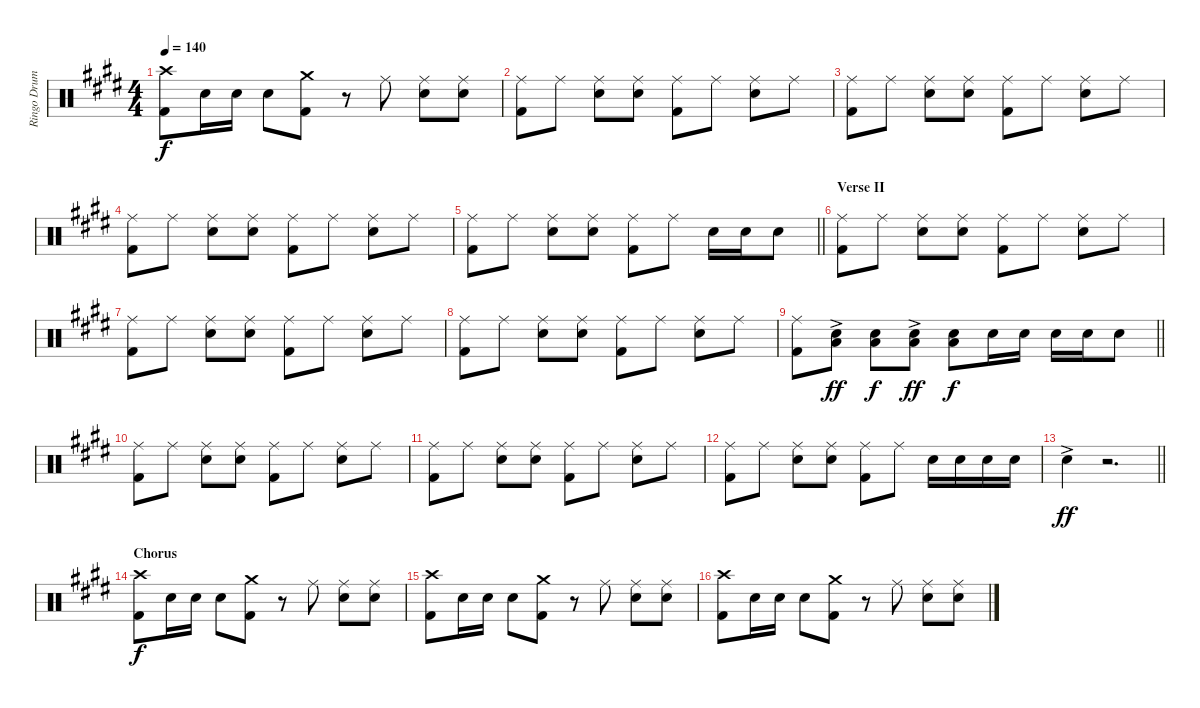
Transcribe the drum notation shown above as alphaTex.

\track ("Ringo Drums" "Ringo Drum") {instrument percussion}
\staff {score}
\articulation defaults
\ts (4 4)
\tempo 140
\clef neutral
\ks e
("Crash high (hit)" "Kick (hit) 2").8{dy f} "Snare (hit) 2".16 "Electric Snare (hit)".16 "Snare (hit) 2".8 ("Crash medium (hit)" "Kick (hit) 2").8 r.8 "Ride (middle)".8 ("Ride (middle)" "Snare (hit) 2").8 ("Ride (middle)" "Snare (hit) 2").8 |
("Ride (middle)" "Kick (hit) 2").8 "Ride (middle)".8 ("Ride (middle)" "Snare (hit) 2").8 ("Ride (middle)" "Snare (hit) 2").8 ("Ride (middle)" "Kick (hit) 2").8 "Ride (middle)".8 ("Ride (middle)" "Snare (hit) 2").8 "Ride (middle)".8 |
("Ride (middle)" "Kick (hit) 2").8 "Ride (middle)".8 ("Ride (middle)" "Snare (hit) 2").8 ("Ride (middle)" "Snare (hit) 2").8 ("Ride (middle)" "Kick (hit) 2").8 "Ride (middle)".8 ("Ride (middle)" "Snare (hit) 2").8 "Ride (middle)".8 |
("Ride (middle)" "Kick (hit) 2").8 "Ride (middle)".8 ("Ride (middle)" "Snare (hit) 2").8 ("Ride (middle)" "Snare (hit) 2").8 ("Ride (middle)" "Kick (hit) 2").8 "Ride (middle)".8 ("Ride (middle)" "Snare (hit) 2").8 "Ride (middle)".8 |
\barLineRight lightlight
("Ride (middle)" "Kick (hit) 2").8 "Ride (middle)".8 ("Ride (middle)" "Snare (hit) 2").8 ("Ride (middle)" "Snare (hit) 2").8 ("Ride (middle)" "Kick (hit) 2").8 "Ride (middle)".8 "Snare (hit) 2".16 "Electric Snare (hit)".16 "Snare (hit) 2".8 |
\section ("" "Verse II")
("Ride (middle)" "Kick (hit) 2").8 "Ride (middle)".8 ("Ride (middle)" "Snare (hit) 2").8 ("Ride (middle)" "Snare (hit) 2").8 ("Ride (middle)" "Kick (hit) 2").8 "Ride (middle)".8 ("Ride (middle)" "Snare (hit) 2").8 "Ride (middle)".8 |
("Ride (middle)" "Kick (hit) 2").8 "Ride (middle)".8 ("Ride (middle)" "Snare (hit) 2").8 ("Ride (middle)" "Snare (hit) 2").8 ("Ride (middle)" "Kick (hit) 2").8 "Ride (middle)".8 ("Ride (middle)" "Snare (hit) 2").8 "Ride (middle)".8 |
("Ride (middle)" "Kick (hit) 2").8 "Ride (middle)".8 ("Ride (middle)" "Snare (hit) 2").8 ("Ride (middle)" "Snare (hit) 2").8 ("Ride (middle)" "Kick (hit) 2").8 "Ride (middle)".8 ("Ride (middle)" "Snare (hit) 2").8 "Ride (middle)".8 |
\barLineRight lightlight
("Ride (middle)" "Kick (hit) 2").8 ("Low Tom (hit)"{ac} "Snare (hit) 2"{ac}).8{dy ff} ("Low Tom (hit)" "Snare (hit) 2").8{dy f} ("Low Tom (hit)"{ac} "Snare (hit) 2"{ac}).8{dy ff} ("Low Tom (hit)" "Snare (hit) 2").8{dy f} "Snare (hit) 2".16 "Electric Snare (hit)".16 "Snare (hit) 2".16 "Electric Snare (hit)".16 "Snare (hit) 2".8 |
("Ride (middle)" "Kick (hit) 2").8 "Ride (middle)".8 ("Ride (middle)" "Snare (hit) 2").8 ("Ride (middle)" "Snare (hit) 2").8 ("Ride (middle)" "Kick (hit) 2").8 "Ride (middle)".8 ("Ride (middle)" "Snare (hit) 2").8 "Ride (middle)".8 |
("Ride (middle)" "Kick (hit) 2").8 "Ride (middle)".8 ("Ride (middle)" "Snare (hit) 2").8 ("Ride (middle)" "Snare (hit) 2").8 ("Ride (middle)" "Kick (hit) 2").8 "Ride (middle)".8 ("Ride (middle)" "Snare (hit) 2").8 "Ride (middle)".8 |
("Ride (middle)" "Kick (hit) 2").8 "Ride (middle)".8 ("Ride (middle)" "Snare (hit) 2").8 ("Ride (middle)" "Snare (hit) 2").8 ("Ride (middle)" "Kick (hit) 2").8 "Ride (middle)".8 "Snare (hit) 2".16 "Electric Snare (hit)".16 "Snare (hit) 2".16 "Electric Snare (hit)".16 |
\barLineRight lightlight "Snare (hit) 2"{ac}.4{dy ff}
r.2{d} |
\section ("" "Chorus")
("Crash high (hit)" "Kick (hit) 2").8{dy f} "Snare (hit) 2".16 "Electric Snare (hit)".16 "Snare (hit) 2".8 ("Crash medium (hit)" "Kick (hit) 2").8 r.8 "Ride (middle)".8 ("Ride (middle)" "Snare (hit) 2").8 ("Ride (middle)" "Snare (hit) 2").8 |
("Crash high (hit)" "Kick (hit) 2").8 "Snare (hit) 2".16 "Electric Snare (hit)".16 "Snare (hit) 2".8 ("Crash medium (hit)" "Kick (hit) 2").8 r.8 "Ride (middle)".8 ("Ride (middle)" "Snare (hit) 2").8 ("Ride (middle)" "Snare (hit) 2").8 |
("Crash high (hit)" "Kick (hit) 2").8 "Snare (hit) 2".16 "Electric Snare (hit)".16 "Snare (hit) 2".8 ("Crash medium (hit)" "Kick (hit) 2").8 r.8 "Ride (middle)".8 ("Ride (middle)" "Snare (hit) 2").8 ("Ride (middle)" "Snare (hit) 2").8
